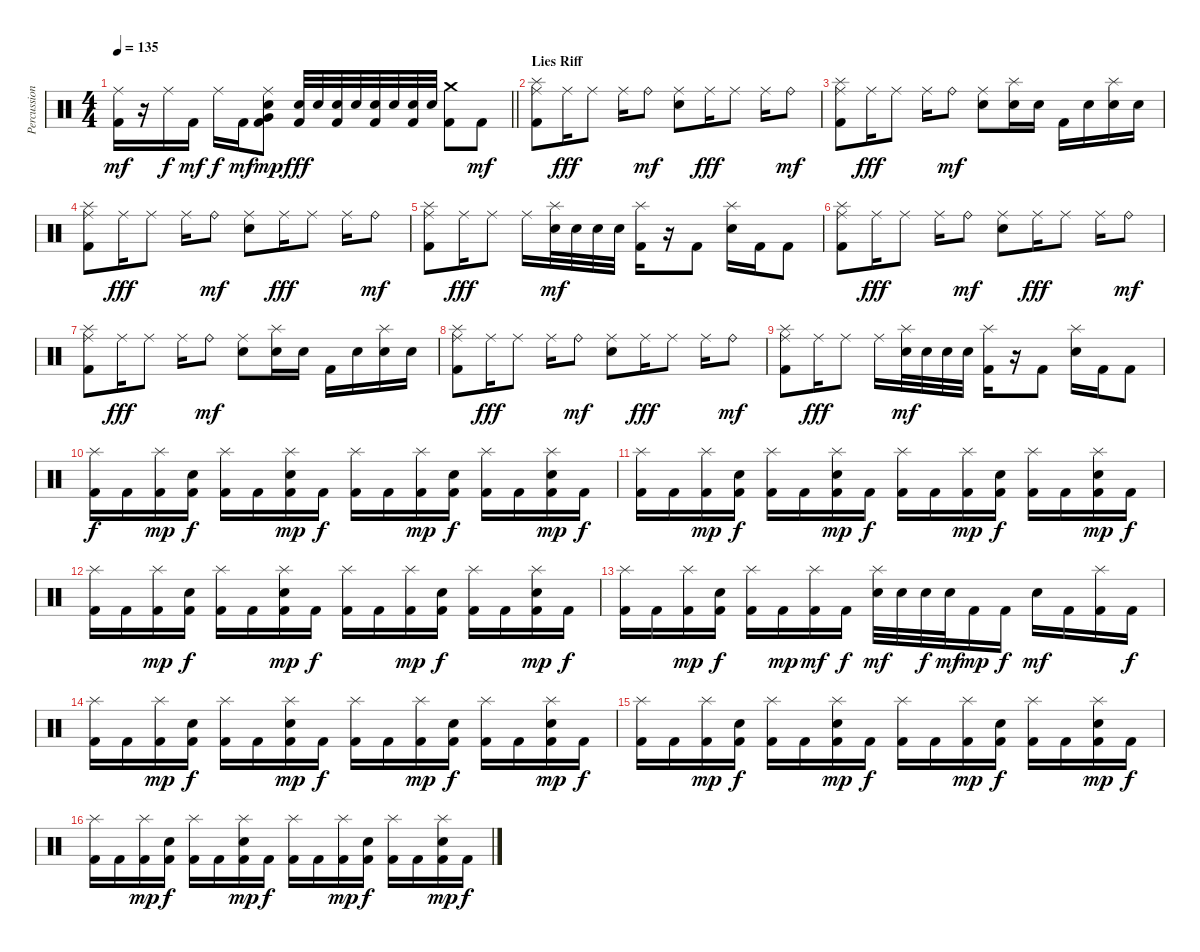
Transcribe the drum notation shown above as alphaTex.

\track ("Percussion" "Percussion") {instrument percussion}
\staff {score}
\articulation defaults
\ts (4 4)
\tempo 135
\clef neutral
\barLineRight lightlight
\ks c
("Ride (middle)" "Kick (hit) 2").16{dy mf} r.16 "Ride (middle)".16{dy f} "Kick (hit) 2".16{dy mf} "Ride (middle)".16{dy f} "Kick (hit) 2".16{dy mf} ("Ride (middle)" "Electric Snare (hit)" "Very Low Tom (hit)" "Kick (hit) 2").8{dy mp} ("Electric Snare (hit)" "Kick (hit) 2").32{dy fff} "Electric Snare (hit)".32 ("Electric Snare (hit)" "Kick (hit) 2").32 "Electric Snare (hit)".32 ("Electric Snare (hit)" "Kick (hit) 2").32 "Electric Snare (hit)".32 ("Electric Snare (hit)" "Kick (hit) 2").32 "Electric Snare (hit)".32 ("Crash medium (hit)" "Kick (hit) 2").8 "Kick (hit) 2".8{dy mf} |
\section ("" "Lies Riff")
("Ride (middle)" "Splash (hit)" "Kick (hit) 2").8 "Ride (middle)".16{dy fff} "Ride (middle)".8 "Ride (middle)".16 "Ride (bell)".8{dy mf} ("Ride (middle)" "Electric Snare (hit)").8 "Ride (middle)".16{dy fff} "Ride (middle)".8 "Ride (middle)".16 "Ride (bell)".8{dy mf} |
("Ride (middle)" "Splash (hit)" "Kick (hit) 2").8 "Ride (middle)".16{dy fff} "Ride (middle)".8 "Ride (middle)".16 "Ride (bell)".8{dy mf} ("Ride (middle)" "Electric Snare (hit)").8 ("Splash (hit)" "Electric Snare (hit)").16 "Electric Snare (hit)".16 "Kick (hit) 2".16 "Electric Snare (hit)".16 ("Splash (hit)" "Electric Snare (hit)").16 "Electric Snare (hit)".16 |
("Ride (middle)" "Splash (hit)" "Kick (hit) 2").8 "Ride (middle)".16{dy fff} "Ride (middle)".8 "Ride (middle)".16 "Ride (bell)".8{dy mf} ("Ride (middle)" "Electric Snare (hit)").8 "Ride (middle)".16{dy fff} "Ride (middle)".8 "Ride (middle)".16 "Ride (bell)".8{dy mf} |
("Ride (middle)" "Splash (hit)" "Kick (hit) 2").8 "Ride (middle)".16{dy fff} "Ride (middle)".8 "Ride (middle)".16 ("Splash (hit)" "Electric Snare (hit)").32{dy mf} "Electric Snare (hit)".32 "Electric Snare (hit)".32 "Electric Snare (hit)".32 ("Splash (hit)" "Kick (hit) 2").16 r.16 "Kick (hit) 2".8 ("Splash (hit)" "Electric Snare (hit)").16 "Kick (hit) 2".16 "Kick (hit) 2".8 |
("Ride (middle)" "Splash (hit)" "Kick (hit) 2").8 "Ride (middle)".16{dy fff} "Ride (middle)".8 "Ride (middle)".16 "Ride (bell)".8{dy mf} ("Ride (middle)" "Electric Snare (hit)").8 "Ride (middle)".16{dy fff} "Ride (middle)".8 "Ride (middle)".16 "Ride (bell)".8{dy mf} |
("Ride (middle)" "Splash (hit)" "Kick (hit) 2").8 "Ride (middle)".16{dy fff} "Ride (middle)".8 "Ride (middle)".16 "Ride (bell)".8{dy mf} ("Ride (middle)" "Electric Snare (hit)").8 ("Splash (hit)" "Electric Snare (hit)").16 "Electric Snare (hit)".16 "Kick (hit) 2".16 "Electric Snare (hit)".16 ("Splash (hit)" "Electric Snare (hit)").16 "Electric Snare (hit)".16 |
("Ride (middle)" "Splash (hit)" "Kick (hit) 2").8 "Ride (middle)".16{dy fff} "Ride (middle)".8 "Ride (middle)".16 "Ride (bell)".8{dy mf} ("Ride (middle)" "Electric Snare (hit)").8 "Ride (middle)".16{dy fff} "Ride (middle)".8 "Ride (middle)".16 "Ride (bell)".8{dy mf} |
("Ride (middle)" "Splash (hit)" "Kick (hit) 2").8 "Ride (middle)".16{dy fff} "Ride (middle)".8 "Ride (middle)".16 ("Splash (hit)" "Electric Snare (hit)").32{dy mf} "Electric Snare (hit)".32 "Electric Snare (hit)".32 "Electric Snare (hit)".32 ("Splash (hit)" "Kick (hit) 2").16 r.16 "Kick (hit) 2".8 ("Splash (hit)" "Electric Snare (hit)").16 "Kick (hit) 2".16 "Kick (hit) 2".8 |
("Splash (hit)" "Kick (hit) 2").16{dy f} "Kick (hit) 2".16 ("Splash (hit)" "Kick (hit) 2").16{dy mp} ("Electric Snare (hit)" "Kick (hit) 2").16{dy f} ("Splash (hit)" "Kick (hit) 2").16 "Kick (hit) 2".16 ("Splash (hit)" "Electric Snare (hit)" "Kick (hit) 2").16{dy mp} "Kick (hit) 2".16{dy f} ("Splash (hit)" "Kick (hit) 2").16 "Kick (hit) 2".16 ("Splash (hit)" "Kick (hit) 2").16{dy mp} ("Electric Snare (hit)" "Kick (hit) 2").16{dy f} ("Splash (hit)" "Kick (hit) 2").16 "Kick (hit) 2".16 ("Splash (hit)" "Electric Snare (hit)" "Kick (hit) 2").16{dy mp} "Kick (hit) 2".16{dy f} |
("Splash (hit)" "Kick (hit) 2").16 "Kick (hit) 2".16 ("Splash (hit)" "Kick (hit) 2").16{dy mp} ("Electric Snare (hit)" "Kick (hit) 2").16{dy f} ("Splash (hit)" "Kick (hit) 2").16 "Kick (hit) 2".16 ("Splash (hit)" "Electric Snare (hit)" "Kick (hit) 2").16{dy mp} "Kick (hit) 2".16{dy f} ("Splash (hit)" "Kick (hit) 2").16 "Kick (hit) 2".16 ("Splash (hit)" "Kick (hit) 2").16{dy mp} ("Electric Snare (hit)" "Kick (hit) 2").16{dy f} ("Splash (hit)" "Kick (hit) 2").16 "Kick (hit) 2".16 ("Splash (hit)" "Electric Snare (hit)" "Kick (hit) 2").16{dy mp} "Kick (hit) 2".16{dy f} |
("Splash (hit)" "Kick (hit) 2").16 "Kick (hit) 2".16 ("Splash (hit)" "Kick (hit) 2").16{dy mp} ("Electric Snare (hit)" "Kick (hit) 2").16{dy f} ("Splash (hit)" "Kick (hit) 2").16 "Kick (hit) 2".16 ("Splash (hit)" "Electric Snare (hit)" "Kick (hit) 2").16{dy mp} "Kick (hit) 2".16{dy f} ("Splash (hit)" "Kick (hit) 2").16 "Kick (hit) 2".16 ("Splash (hit)" "Kick (hit) 2").16{dy mp} ("Electric Snare (hit)" "Kick (hit) 2").16{dy f} ("Splash (hit)" "Kick (hit) 2").16 "Kick (hit) 2".16 ("Splash (hit)" "Electric Snare (hit)" "Kick (hit) 2").16{dy mp} "Kick (hit) 2".16{dy f} |
("Splash (hit)" "Kick (hit) 2").16 "Kick (hit) 2".16 ("Splash (hit)" "Kick (hit) 2").16{dy mp} ("Electric Snare (hit)" "Kick (hit) 2").16{dy f} ("Splash (hit)" "Kick (hit) 2").16 "Kick (hit) 2".16{dy mp} ("Splash (hit)" "Kick (hit) 2").16{dy mf} "Kick (hit) 2".16{dy f} ("Splash (hit)" "Electric Snare (hit)").32{dy mf} "Electric Snare (hit)".32 "Electric Snare (hit)".32{dy f} "Electric Snare (hit)".32{dy mf} "Kick (hit) 2".16{dy mp} "Kick (hit) 2".16{dy f} "Electric Snare (hit)".16{dy mf} "Kick (hit) 2".16 ("Splash (hit)" "Kick (hit) 2").16 "Kick (hit) 2".16{dy f} |
("Splash (hit)" "Kick (hit) 2").16 "Kick (hit) 2".16 ("Splash (hit)" "Kick (hit) 2").16{dy mp} ("Electric Snare (hit)" "Kick (hit) 2").16{dy f} ("Splash (hit)" "Kick (hit) 2").16 "Kick (hit) 2".16 ("Splash (hit)" "Electric Snare (hit)" "Kick (hit) 2").16{dy mp} "Kick (hit) 2".16{dy f} ("Splash (hit)" "Kick (hit) 2").16 "Kick (hit) 2".16 ("Splash (hit)" "Kick (hit) 2").16{dy mp} ("Electric Snare (hit)" "Kick (hit) 2").16{dy f} ("Splash (hit)" "Kick (hit) 2").16 "Kick (hit) 2".16 ("Splash (hit)" "Electric Snare (hit)" "Kick (hit) 2").16{dy mp} "Kick (hit) 2".16{dy f} |
("Splash (hit)" "Kick (hit) 2").16 "Kick (hit) 2".16 ("Splash (hit)" "Kick (hit) 2").16{dy mp} ("Electric Snare (hit)" "Kick (hit) 2").16{dy f} ("Splash (hit)" "Kick (hit) 2").16 "Kick (hit) 2".16 ("Splash (hit)" "Electric Snare (hit)" "Kick (hit) 2").16{dy mp} "Kick (hit) 2".16{dy f} ("Splash (hit)" "Kick (hit) 2").16 "Kick (hit) 2".16 ("Splash (hit)" "Kick (hit) 2").16{dy mp} ("Electric Snare (hit)" "Kick (hit) 2").16{dy f} ("Splash (hit)" "Kick (hit) 2").16 "Kick (hit) 2".16 ("Splash (hit)" "Electric Snare (hit)" "Kick (hit) 2").16{dy mp} "Kick (hit) 2".16{dy f} |
("Splash (hit)" "Kick (hit) 2").16 "Kick (hit) 2".16 ("Splash (hit)" "Kick (hit) 2").16{dy mp} ("Electric Snare (hit)" "Kick (hit) 2").16{dy f} ("Splash (hit)" "Kick (hit) 2").16 "Kick (hit) 2".16 ("Splash (hit)" "Electric Snare (hit)" "Kick (hit) 2").16{dy mp} "Kick (hit) 2".16{dy f} ("Splash (hit)" "Kick (hit) 2").16 "Kick (hit) 2".16 ("Splash (hit)" "Kick (hit) 2").16{dy mp} ("Electric Snare (hit)" "Kick (hit) 2").16{dy f} ("Splash (hit)" "Kick (hit) 2").16 "Kick (hit) 2".16 ("Splash (hit)" "Electric Snare (hit)" "Kick (hit) 2").16{dy mp} "Kick (hit) 2".16{dy f}
